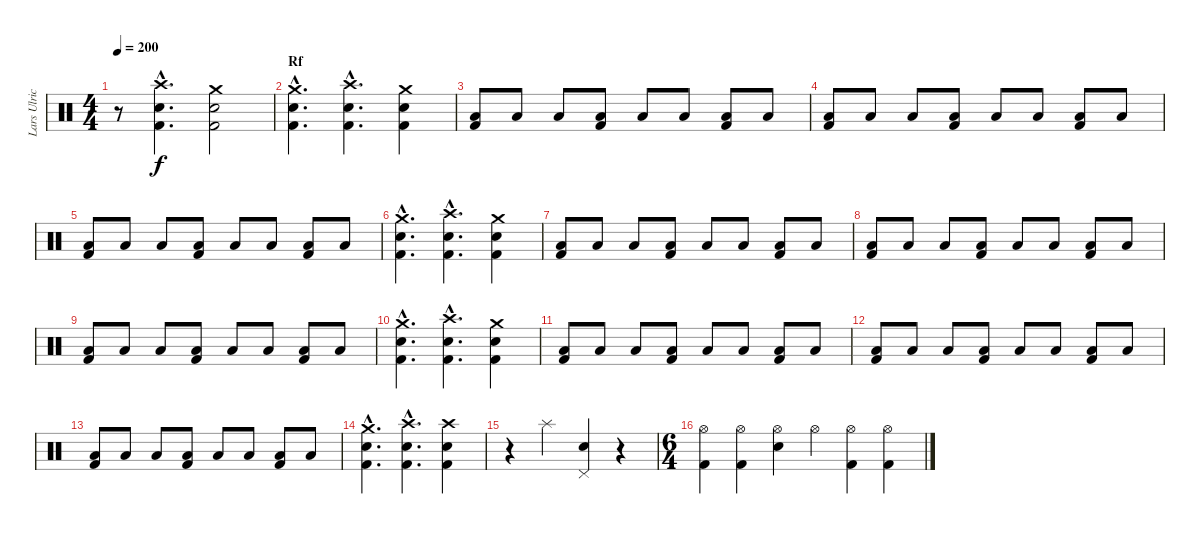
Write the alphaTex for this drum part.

\track ("Lars Ulrich" "Lars Ulric") {instrument percussion}
\staff {score}
\articulation defaults
\ts (4 4)
\tempo 200
\clef neutral
\ks c
r.8{dy f} ("Crash high (hit)"{hac} "Electric Snare (hit)"{hac} "Kick (hit) 2"{hac}).4{d} ("Crash medium (hit)" "Electric Snare (hit)" "Kick (hit) 2").2 |
\section ("" "Rf")
("Crash medium (hit)"{hac} "Electric Snare (hit)"{hac} "Kick (hit) 2"{hac}).4{d} ("Crash high (hit)"{hac} "Electric Snare (hit)"{hac} "Kick (hit) 2"{hac}).4{d} ("Crash medium (hit)" "Electric Snare (hit)" "Kick (hit) 2").4 |
("Low Floor Tom (hit)" "Kick (hit) 2").8 "Low Floor Tom (hit)".8 "Low Floor Tom (hit)".8 ("Low Floor Tom (hit)" "Kick (hit) 2").8 "Low Floor Tom (hit)".8 "Low Floor Tom (hit)".8 ("Low Floor Tom (hit)" "Kick (hit) 2").8 "Low Floor Tom (hit)".8 |
("Low Floor Tom (hit)" "Kick (hit) 2").8 "Low Floor Tom (hit)".8 "Low Floor Tom (hit)".8 ("Low Floor Tom (hit)" "Kick (hit) 2").8 "Low Floor Tom (hit)".8 "Low Floor Tom (hit)".8 ("Low Floor Tom (hit)" "Kick (hit) 2").8 "Low Floor Tom (hit)".8 |
("Low Floor Tom (hit)" "Kick (hit) 2").8 "Low Floor Tom (hit)".8 "Low Floor Tom (hit)".8 ("Low Floor Tom (hit)" "Kick (hit) 2").8 "Low Floor Tom (hit)".8 "Low Floor Tom (hit)".8 ("Low Floor Tom (hit)" "Kick (hit) 2").8 "Low Floor Tom (hit)".8 |
("Crash medium (hit)"{hac} "Electric Snare (hit)"{hac} "Kick (hit) 2"{hac}).4{d} ("Crash high (hit)"{hac} "Electric Snare (hit)"{hac} "Kick (hit) 2"{hac}).4{d} ("Crash medium (hit)" "Electric Snare (hit)" "Kick (hit) 2").4 |
("Low Floor Tom (hit)" "Kick (hit) 2").8 "Low Floor Tom (hit)".8 "Low Floor Tom (hit)".8 ("Low Floor Tom (hit)" "Kick (hit) 2").8 "Low Floor Tom (hit)".8 "Low Floor Tom (hit)".8 ("Low Floor Tom (hit)" "Kick (hit) 2").8 "Low Floor Tom (hit)".8 |
("Low Floor Tom (hit)" "Kick (hit) 2").8 "Low Floor Tom (hit)".8 "Low Floor Tom (hit)".8 ("Low Floor Tom (hit)" "Kick (hit) 2").8 "Low Floor Tom (hit)".8 "Low Floor Tom (hit)".8 ("Low Floor Tom (hit)" "Kick (hit) 2").8 "Low Floor Tom (hit)".8 |
("Low Floor Tom (hit)" "Kick (hit) 2").8 "Low Floor Tom (hit)".8 "Low Floor Tom (hit)".8 ("Low Floor Tom (hit)" "Kick (hit) 2").8 "Low Floor Tom (hit)".8 "Low Floor Tom (hit)".8 ("Low Floor Tom (hit)" "Kick (hit) 2").8 "Low Floor Tom (hit)".8 |
("Crash medium (hit)"{hac} "Electric Snare (hit)"{hac} "Kick (hit) 2"{hac}).4{d} ("Crash high (hit)"{hac} "Electric Snare (hit)"{hac} "Kick (hit) 2"{hac}).4{d} ("Crash medium (hit)" "Electric Snare (hit)" "Kick (hit) 2").4 |
("Low Floor Tom (hit)" "Kick (hit) 2").8 "Low Floor Tom (hit)".8 "Low Floor Tom (hit)".8 ("Low Floor Tom (hit)" "Kick (hit) 2").8 "Low Floor Tom (hit)".8 "Low Floor Tom (hit)".8 ("Low Floor Tom (hit)" "Kick (hit) 2").8 "Low Floor Tom (hit)".8 |
("Low Floor Tom (hit)" "Kick (hit) 2").8 "Low Floor Tom (hit)".8 "Low Floor Tom (hit)".8 ("Low Floor Tom (hit)" "Kick (hit) 2").8 "Low Floor Tom (hit)".8 "Low Floor Tom (hit)".8 ("Low Floor Tom (hit)" "Kick (hit) 2").8 "Low Floor Tom (hit)".8 |
("Low Floor Tom (hit)" "Kick (hit) 2").8 "Low Floor Tom (hit)".8 "Low Floor Tom (hit)".8 ("Low Floor Tom (hit)" "Kick (hit) 2").8 "Low Floor Tom (hit)".8 "Low Floor Tom (hit)".8 ("Low Floor Tom (hit)" "Kick (hit) 2").8 "Low Floor Tom (hit)".8 |
("Crash medium (hit)"{hac} "Electric Snare (hit)"{hac} "Kick (hit) 2"{hac}).4{d} ("Crash high (hit)"{hac} "Electric Snare (hit)"{hac} "Kick (hit) 2"{hac}).4{d} ("Crash high (hit)" "Electric Snare (hit)" "Kick (hit) 2").4 |
r.4 "Splash (hit)".4 ("Pedal Hi-Hat (hit)" "Electric Snare (hit)").4 r.4 |
\ts (6 4)
("Hi-Hat (open)" "Kick (hit) 2").4 ("Hi-Hat (open)" "Kick (hit) 2").4 ("Hi-Hat (open)" "Electric Snare (hit)").4 "Hi-Hat (open)".4 ("Hi-Hat (open)" "Kick (hit) 2").4 ("Hi-Hat (open)" "Kick (hit) 2").4
